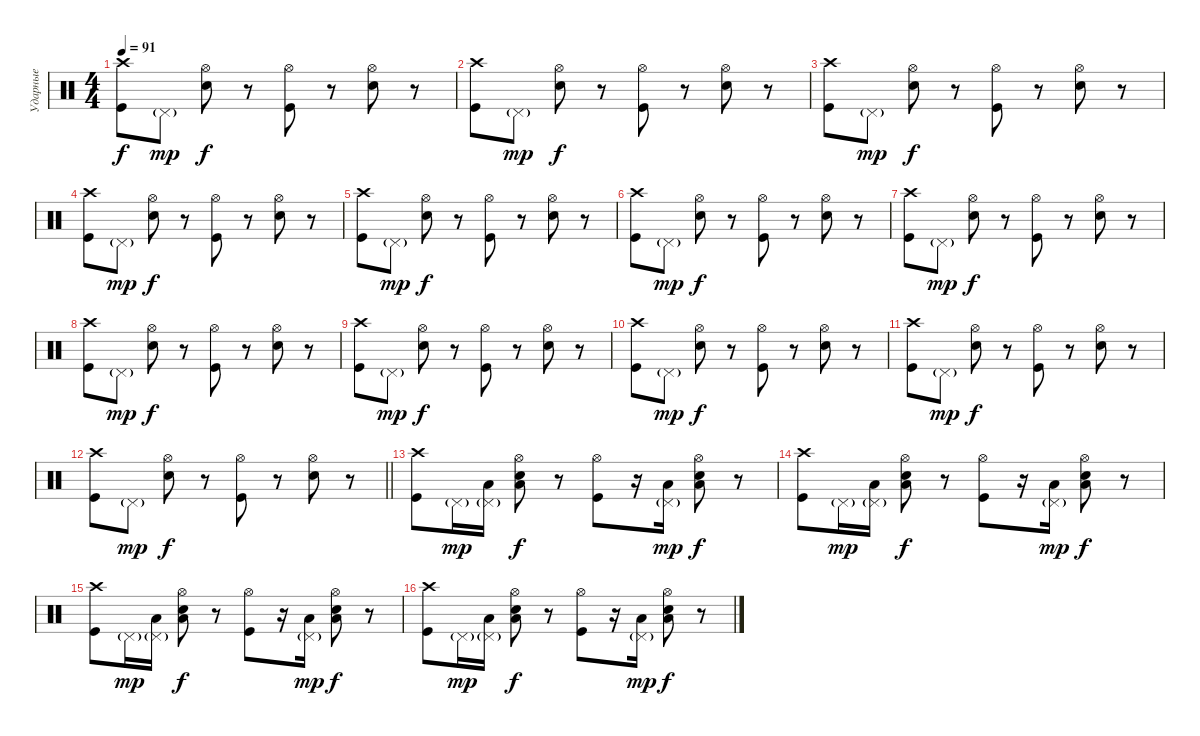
\track ("Ударные" "Ударные") {instrument percussion}
\staff {score}
\articulation defaults
\ts (4 4)
\tempo 91
\clef neutral
\ks c
("Crash high (hit)" "Kick (hit)").8{dy f} "Pedal Hi-Hat (hit)"{g}.8{dy mp} ("Hi-Hat (open)" "Snare (hit) 2").8{dy f} r.8 ("Hi-Hat (open)" "Kick (hit)").8 r.8 ("Hi-Hat (open)" "Snare (hit) 2").8 r.8 |
("Crash high (hit)" "Kick (hit)").8 "Pedal Hi-Hat (hit)"{g}.8{dy mp} ("Hi-Hat (open)" "Snare (hit) 2").8{dy f} r.8 ("Hi-Hat (open)" "Kick (hit)").8 r.8 ("Hi-Hat (open)" "Snare (hit) 2").8 r.8 |
("Crash high (hit)" "Kick (hit)").8 "Pedal Hi-Hat (hit)"{g}.8{dy mp} ("Hi-Hat (open)" "Snare (hit) 2").8{dy f} r.8 ("Hi-Hat (open)" "Kick (hit)").8 r.8 ("Hi-Hat (open)" "Snare (hit) 2").8 r.8 |
("Crash high (hit)" "Kick (hit)").8 "Pedal Hi-Hat (hit)"{g}.8{dy mp} ("Hi-Hat (open)" "Snare (hit) 2").8{dy f} r.8 ("Hi-Hat (open)" "Kick (hit)").8 r.8 ("Hi-Hat (open)" "Snare (hit) 2").8 r.8 |
("Crash high (hit)" "Kick (hit)").8 "Pedal Hi-Hat (hit)"{g}.8{dy mp} ("Hi-Hat (open)" "Snare (hit) 2").8{dy f} r.8 ("Hi-Hat (open)" "Kick (hit)").8 r.8 ("Hi-Hat (open)" "Snare (hit) 2").8 r.8 |
("Crash high (hit)" "Kick (hit)").8 "Pedal Hi-Hat (hit)"{g}.8{dy mp} ("Hi-Hat (open)" "Snare (hit) 2").8{dy f} r.8 ("Hi-Hat (open)" "Kick (hit)").8 r.8 ("Hi-Hat (open)" "Snare (hit) 2").8 r.8 |
("Crash high (hit)" "Kick (hit)").8 "Pedal Hi-Hat (hit)"{g}.8{dy mp} ("Hi-Hat (open)" "Snare (hit) 2").8{dy f} r.8 ("Hi-Hat (open)" "Kick (hit)").8 r.8 ("Hi-Hat (open)" "Snare (hit) 2").8 r.8 |
("Crash high (hit)" "Kick (hit)").8 "Pedal Hi-Hat (hit)"{g}.8{dy mp} ("Hi-Hat (open)" "Snare (hit) 2").8{dy f} r.8 ("Hi-Hat (open)" "Kick (hit)").8 r.8 ("Hi-Hat (open)" "Snare (hit) 2").8 r.8 |
("Crash high (hit)" "Kick (hit)").8 "Pedal Hi-Hat (hit)"{g}.8{dy mp} ("Hi-Hat (open)" "Snare (hit) 2").8{dy f} r.8 ("Hi-Hat (open)" "Kick (hit)").8 r.8 ("Hi-Hat (open)" "Snare (hit) 2").8 r.8 |
("Crash high (hit)" "Kick (hit)").8 "Pedal Hi-Hat (hit)"{g}.8{dy mp} ("Hi-Hat (open)" "Snare (hit) 2").8{dy f} r.8 ("Hi-Hat (open)" "Kick (hit)").8 r.8 ("Hi-Hat (open)" "Snare (hit) 2").8 r.8 |
("Crash high (hit)" "Kick (hit)").8 "Pedal Hi-Hat (hit)"{g}.8{dy mp} ("Hi-Hat (open)" "Snare (hit) 2").8{dy f} r.8 ("Hi-Hat (open)" "Kick (hit)").8 r.8 ("Hi-Hat (open)" "Snare (hit) 2").8 r.8 |
\barLineRight lightlight
("Crash high (hit)" "Kick (hit)").8 "Pedal Hi-Hat (hit)"{g}.8{dy mp} ("Hi-Hat (open)" "Snare (hit) 2").8{dy f} r.8 ("Hi-Hat (open)" "Kick (hit)").8 r.8 ("Hi-Hat (open)" "Snare (hit) 2").8 r.8 |
("Crash high (hit)" "Kick (hit)").8 "Pedal Hi-Hat (hit)"{g}.16{dy mp} ("Pedal Hi-Hat (hit)"{g} "Low Tom (hit)").16 ("Hi-Hat (open)" "Low Tom (hit)" "Snare (hit) 2").8{dy f} r.8 ("Hi-Hat (open)" "Kick (hit)").8 r.16 ("Pedal Hi-Hat (hit)"{g} "Low Tom (hit)").16{dy mp} ("Hi-Hat (open)" "Low Tom (hit)" "Snare (hit) 2").8{dy f} r.8 |
("Crash high (hit)" "Kick (hit)").8 "Pedal Hi-Hat (hit)"{g}.16{dy mp} ("Pedal Hi-Hat (hit)"{g} "Low Tom (hit)").16 ("Hi-Hat (open)" "Low Tom (hit)" "Snare (hit) 2").8{dy f} r.8 ("Hi-Hat (open)" "Kick (hit)").8 r.16 ("Pedal Hi-Hat (hit)"{g} "Low Tom (hit)").16{dy mp} ("Hi-Hat (open)" "Low Tom (hit)" "Snare (hit) 2").8{dy f} r.8 |
("Crash high (hit)" "Kick (hit)").8 "Pedal Hi-Hat (hit)"{g}.16{dy mp} ("Pedal Hi-Hat (hit)"{g} "Low Tom (hit)").16 ("Hi-Hat (open)" "Low Tom (hit)" "Snare (hit) 2").8{dy f} r.8 ("Hi-Hat (open)" "Kick (hit)").8 r.16 ("Pedal Hi-Hat (hit)"{g} "Low Tom (hit)").16{dy mp} ("Hi-Hat (open)" "Low Tom (hit)" "Snare (hit) 2").8{dy f} r.8 |
("Crash high (hit)" "Kick (hit)").8 "Pedal Hi-Hat (hit)"{g}.16{dy mp} ("Pedal Hi-Hat (hit)"{g} "Low Tom (hit)").16 ("Hi-Hat (open)" "Low Tom (hit)" "Snare (hit) 2").8{dy f} r.8 ("Hi-Hat (open)" "Kick (hit)").8 r.16 ("Pedal Hi-Hat (hit)"{g} "Low Tom (hit)").16{dy mp} ("Hi-Hat (open)" "Low Tom (hit)" "Snare (hit) 2").8{dy f} r.8
